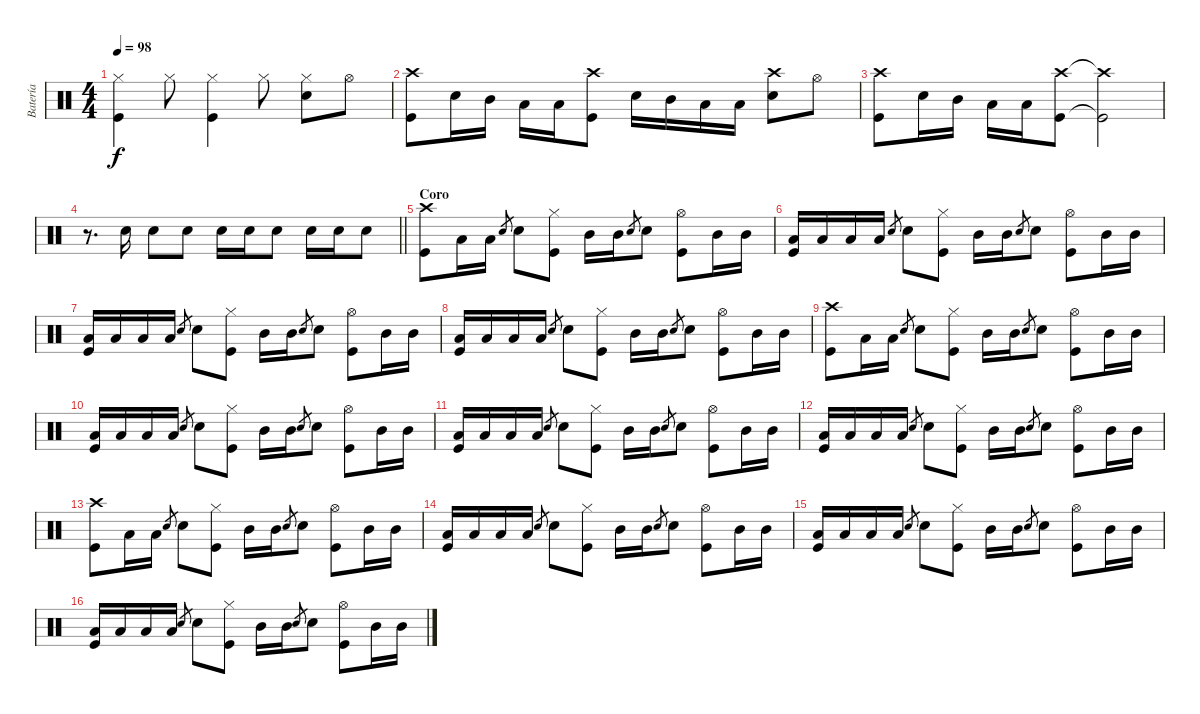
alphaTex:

\track ("Batería" "Batería") {instrument percussion}
\staff {score}
\articulation defaults
\ts (4 4)
\tempo 98
\clef neutral
\ks c
("Hi-Hat (closed)" "Kick (hit)").4{dy f} "Hi-Hat (closed)".8 ("Hi-Hat (closed)" "Kick (hit)").4 "Hi-Hat (closed)".8 ("Hi-Hat (closed)" "Snare (hit) 2").8 "Hi-Hat (open)".8 |
("Crash high (hit)" "Kick (hit)").8 "Snare (hit) 2".16 "Mid Tom (hit)".16 "Low Tom (hit)".16 "Low Floor Tom (hit)".16 ("Crash high (hit)" "Kick (hit)").8 "Snare (hit) 2".16 "Mid Tom (hit)".16 "Low Tom (hit)".16 "Low Floor Tom (hit)".16 ("Crash high (hit)" "Snare (hit) 2").8 "Hi-Hat (open)".8 |
("Crash high (hit)" "Kick (hit)").8 "Snare (hit) 2".16 "Mid Tom (hit)".16 "Low Tom (hit)".16 "Low Floor Tom (hit)".16 ("Crash high (hit)" "Kick (hit)").8 ("Crash high (hit)"{t} "Kick (hit)"{t}).2 |
\barLineRight lightlight
r.8{d} "Snare (hit) 2".16 "Snare (hit) 2".8 "Snare (hit) 2".8 "Snare (hit) 2".16 "Snare (hit) 2".16 "Snare (hit) 2".8 "Snare (hit) 2".16 "Snare (hit) 2".16 "Snare (hit) 2".8 |
\section ("" "Coro")
("Crash high (hit)" "Kick (hit)").8 "Low Tom (hit)".16 "Low Tom (hit)".16 "Snare (hit) 2".8{gr} "Snare (hit) 2".8 ("Hi-Hat (closed)" "Kick (hit)").8 "Mid Tom (hit)".16 "Mid Tom (hit)".16 "Snare (hit) 2".8{gr} "Snare (hit) 2".8 ("Hi-Hat (open)" "Kick (hit)").8 "Mid Tom (hit)".16 "Mid Tom (hit)".16 |
("Low Tom (hit)" "Kick (hit)").16 "Low Tom (hit)".16 "Low Floor Tom (hit)".16 "Low Floor Tom (hit)".16 "Snare (hit) 2".8{gr} "Snare (hit) 2".8 ("Hi-Hat (closed)" "Kick (hit)").8 "Mid Tom (hit)".16 "Mid Tom (hit)".16 "Snare (hit) 2".8{gr} "Snare (hit) 2".8 ("Hi-Hat (open)" "Kick (hit)").8 "Mid Tom (hit)".16 "Mid Tom (hit)".16 |
("Low Tom (hit)" "Kick (hit)").16 "Low Tom (hit)".16 "Low Floor Tom (hit)".16 "Low Floor Tom (hit)".16 "Snare (hit) 2".8{gr} "Snare (hit) 2".8 ("Hi-Hat (closed)" "Kick (hit)").8 "Mid Tom (hit)".16 "Mid Tom (hit)".16 "Snare (hit) 2".8{gr} "Snare (hit) 2".8 ("Hi-Hat (open)" "Kick (hit)").8 "Mid Tom (hit)".16 "Mid Tom (hit)".16 |
("Low Tom (hit)" "Kick (hit)").16 "Low Tom (hit)".16 "Low Floor Tom (hit)".16 "Low Floor Tom (hit)".16 "Snare (hit) 2".8{gr} "Snare (hit) 2".8 ("Hi-Hat (closed)" "Kick (hit)").8 "Mid Tom (hit)".16 "Mid Tom (hit)".16 "Snare (hit) 2".8{gr} "Snare (hit) 2".8 ("Hi-Hat (open)" "Kick (hit)").8 "Mid Tom (hit)".16 "Mid Tom (hit)".16 |
("Crash high (hit)" "Kick (hit)").8 "Low Tom (hit)".16 "Low Tom (hit)".16 "Snare (hit) 2".8{gr} "Snare (hit) 2".8 ("Hi-Hat (closed)" "Kick (hit)").8 "Mid Tom (hit)".16 "Mid Tom (hit)".16 "Snare (hit) 2".8{gr} "Snare (hit) 2".8 ("Hi-Hat (open)" "Kick (hit)").8 "Mid Tom (hit)".16 "Mid Tom (hit)".16 |
("Low Tom (hit)" "Kick (hit)").16 "Low Tom (hit)".16 "Low Floor Tom (hit)".16 "Low Floor Tom (hit)".16 "Snare (hit) 2".8{gr} "Snare (hit) 2".8 ("Hi-Hat (closed)" "Kick (hit)").8 "Mid Tom (hit)".16 "Mid Tom (hit)".16 "Snare (hit) 2".8{gr} "Snare (hit) 2".8 ("Hi-Hat (open)" "Kick (hit)").8 "Mid Tom (hit)".16 "Mid Tom (hit)".16 |
("Low Tom (hit)" "Kick (hit)").16 "Low Tom (hit)".16 "Low Floor Tom (hit)".16 "Low Floor Tom (hit)".16 "Snare (hit) 2".8{gr} "Snare (hit) 2".8 ("Hi-Hat (closed)" "Kick (hit)").8 "Mid Tom (hit)".16 "Mid Tom (hit)".16 "Snare (hit) 2".8{gr} "Snare (hit) 2".8 ("Hi-Hat (open)" "Kick (hit)").8 "Mid Tom (hit)".16 "Mid Tom (hit)".16 |
("Low Tom (hit)" "Kick (hit)").16 "Low Tom (hit)".16 "Low Floor Tom (hit)".16 "Low Floor Tom (hit)".16 "Snare (hit) 2".8{gr} "Snare (hit) 2".8 ("Hi-Hat (closed)" "Kick (hit)").8 "Mid Tom (hit)".16 "Mid Tom (hit)".16 "Snare (hit) 2".8{gr} "Snare (hit) 2".8 ("Hi-Hat (open)" "Kick (hit)").8 "Mid Tom (hit)".16 "Mid Tom (hit)".16 |
("Crash high (hit)" "Kick (hit)").8 "Low Tom (hit)".16 "Low Tom (hit)".16 "Snare (hit) 2".8{gr} "Snare (hit) 2".8 ("Hi-Hat (closed)" "Kick (hit)").8 "Mid Tom (hit)".16 "Mid Tom (hit)".16 "Snare (hit) 2".8{gr} "Snare (hit) 2".8 ("Hi-Hat (open)" "Kick (hit)").8 "Mid Tom (hit)".16 "Mid Tom (hit)".16 |
("Low Tom (hit)" "Kick (hit)").16 "Low Tom (hit)".16 "Low Floor Tom (hit)".16 "Low Floor Tom (hit)".16 "Snare (hit) 2".8{gr} "Snare (hit) 2".8 ("Hi-Hat (closed)" "Kick (hit)").8 "Mid Tom (hit)".16 "Mid Tom (hit)".16 "Snare (hit) 2".8{gr} "Snare (hit) 2".8 ("Hi-Hat (open)" "Kick (hit)").8 "Mid Tom (hit)".16 "Mid Tom (hit)".16 |
("Low Tom (hit)" "Kick (hit)").16 "Low Tom (hit)".16 "Low Floor Tom (hit)".16 "Low Floor Tom (hit)".16 "Snare (hit) 2".8{gr} "Snare (hit) 2".8 ("Hi-Hat (closed)" "Kick (hit)").8 "Mid Tom (hit)".16 "Mid Tom (hit)".16 "Snare (hit) 2".8{gr} "Snare (hit) 2".8 ("Hi-Hat (open)" "Kick (hit)").8 "Mid Tom (hit)".16 "Mid Tom (hit)".16 |
("Low Tom (hit)" "Kick (hit)").16 "Low Tom (hit)".16 "Low Floor Tom (hit)".16 "Low Floor Tom (hit)".16 "Snare (hit) 2".8{gr} "Snare (hit) 2".8 ("Hi-Hat (closed)" "Kick (hit)").8 "Mid Tom (hit)".16 "Mid Tom (hit)".16 "Snare (hit) 2".8{gr} "Snare (hit) 2".8 ("Hi-Hat (open)" "Kick (hit)").8 "Mid Tom (hit)".16 "Mid Tom (hit)".16
